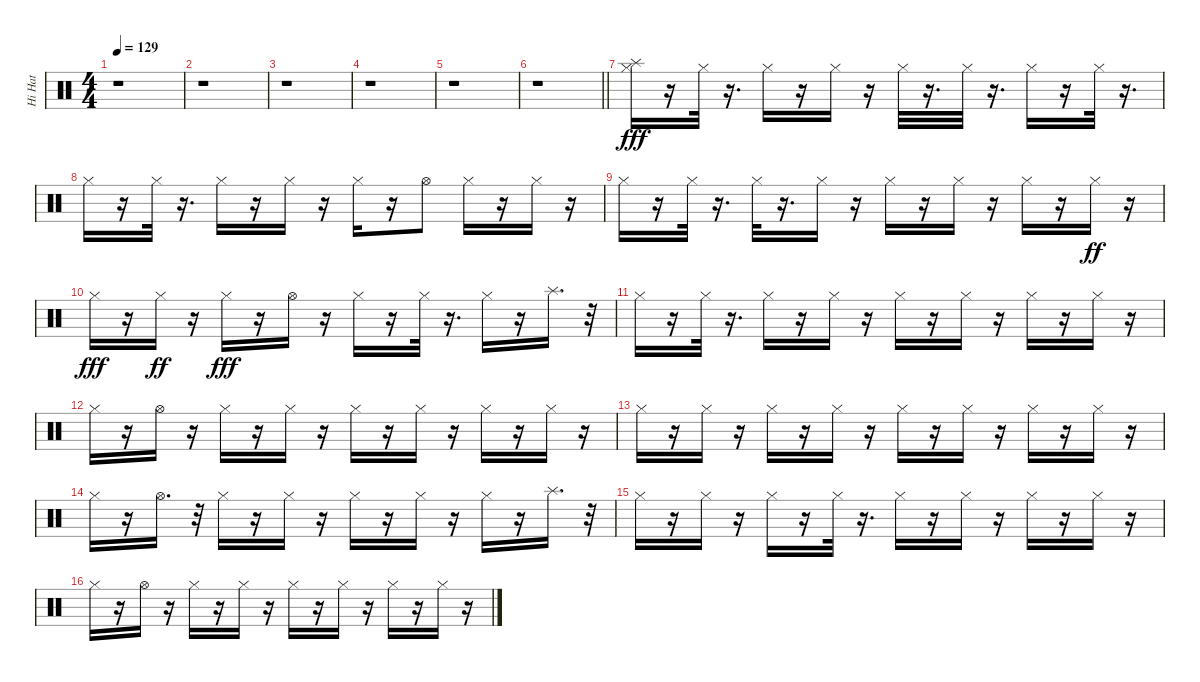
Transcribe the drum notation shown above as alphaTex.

\track ("Hi Hat" "Hi Hat") {instrument percussion}
\staff {score}
\articulation defaults
\ts (4 4)
\tempo 129
\clef neutral
\ks c
r.1{dy fff} |
r.1 |
r.1 |
r.1 |
r.1 |
\barLineRight lightlight
r.1 |
("Splash (hit)" "Hi-Hat (closed)").16 r.16 "Hi-Hat (closed)".32 r.16{d} "Hi-Hat (closed)".16 r.16 "Hi-Hat (closed)".16 r.16 "Hi-Hat (closed)".32 r.16{d} "Hi-Hat (closed)".32 r.16{d} "Hi-Hat (closed)".16 r.16 "Hi-Hat (closed)".32 r.16{d} |
"Hi-Hat (closed)".16 r.16 "Hi-Hat (closed)".32 r.16{d} "Hi-Hat (closed)".16 r.16 "Hi-Hat (closed)".16 r.16 "Hi-Hat (closed)".16 r.16 "Hi-Hat (open)".8 "Hi-Hat (closed)".16 r.16 "Hi-Hat (closed)".16 r.16 |
"Hi-Hat (closed)".16 r.16 "Hi-Hat (closed)".32 r.16{d} "Hi-Hat (closed)".32 r.16{d} "Hi-Hat (closed)".16 r.16 "Hi-Hat (closed)".16 r.16 "Hi-Hat (closed)".16 r.16 "Hi-Hat (closed)".16 r.16 "Hi-Hat (closed)".16{dy ff} r.16 |
"Hi-Hat (closed)".16{dy fff} r.16 "Hi-Hat (closed)".16{dy ff} r.16 "Hi-Hat (closed)".16{dy fff} r.16 "Hi-Hat (open)".16 r.16 "Hi-Hat (closed)".16 r.16 "Hi-Hat (closed)".32 r.16{d} "Hi-Hat (closed)".16 r.16 "Splash (hit)".16{d} r.32 |
"Hi-Hat (closed)".16 r.16 "Hi-Hat (closed)".32 r.16{d} "Hi-Hat (closed)".16 r.16 "Hi-Hat (closed)".16 r.16 "Hi-Hat (closed)".16 r.16 "Hi-Hat (closed)".16 r.16 "Hi-Hat (closed)".16 r.16 "Hi-Hat (closed)".16 r.16 |
"Hi-Hat (closed)".16 r.16 "Hi-Hat (open)".16 r.16 "Hi-Hat (closed)".16 r.16 "Hi-Hat (closed)".16 r.16 "Hi-Hat (closed)".16 r.16 "Hi-Hat (closed)".16 r.16 "Hi-Hat (closed)".16 r.16 "Hi-Hat (closed)".16 r.16 |
"Hi-Hat (closed)".16 r.16 "Hi-Hat (closed)".16 r.16 "Hi-Hat (closed)".16 r.16 "Hi-Hat (closed)".16 r.16 "Hi-Hat (closed)".16 r.16 "Hi-Hat (closed)".16 r.16 "Hi-Hat (closed)".16 r.16 "Hi-Hat (closed)".16 r.16 |
"Hi-Hat (closed)".16 r.16 "Hi-Hat (open)".16{d} r.32 "Hi-Hat (closed)".16 r.16 "Hi-Hat (closed)".16 r.16 "Hi-Hat (closed)".16 r.16 "Hi-Hat (closed)".16 r.16 "Hi-Hat (closed)".16 r.16 "Splash (hit)".16{d} r.32 |
"Hi-Hat (closed)".16 r.16 "Hi-Hat (closed)".16 r.16 "Hi-Hat (closed)".16 r.16 "Hi-Hat (closed)".32 r.16{d} "Hi-Hat (closed)".16 r.16 "Hi-Hat (closed)".16 r.16 "Hi-Hat (closed)".16 r.16 "Hi-Hat (closed)".16 r.16 |
"Hi-Hat (closed)".16 r.16 "Hi-Hat (open)".16 r.16 "Hi-Hat (closed)".16 r.16 "Hi-Hat (closed)".16 r.16 "Hi-Hat (closed)".16 r.16 "Hi-Hat (closed)".16 r.16 "Hi-Hat (closed)".16 r.16 "Hi-Hat (closed)".16 r.16
